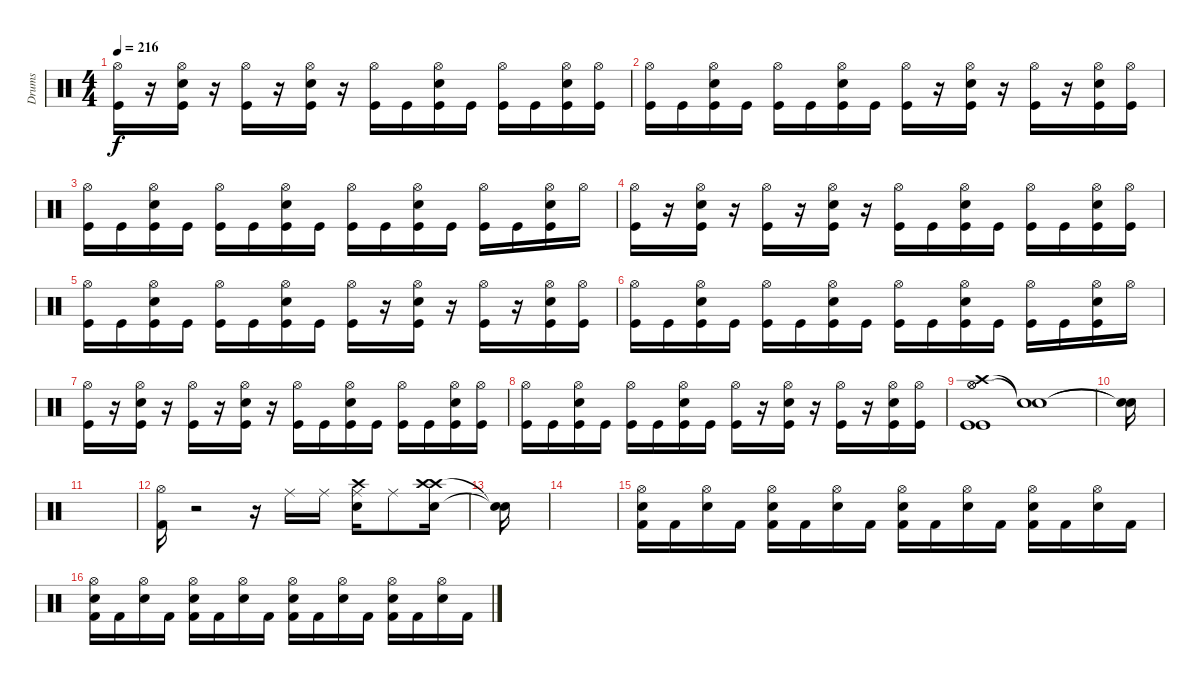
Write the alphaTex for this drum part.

\track ("Drums" "Drums") {instrument percussion}
\staff {score}
\articulation defaults
\ts (4 4)
\tempo 216
\clef neutral
\ks c
("Hi-Hat (open)" "Kick (hit)").16{dy f} r.16 ("Hi-Hat (open)" "Snare (hit) 2" "Kick (hit)").16 r.16 ("Hi-Hat (open)" "Kick (hit)").16 r.16 ("Hi-Hat (open)" "Snare (hit) 2" "Kick (hit)").16 r.16 ("Hi-Hat (open)" "Kick (hit)").16 "Kick (hit)".16 ("Hi-Hat (open)" "Snare (hit) 2" "Kick (hit)").16 "Kick (hit)".16 ("Hi-Hat (open)" "Kick (hit)").16 "Kick (hit)".16 ("Hi-Hat (open)" "Snare (hit) 2" "Kick (hit)").16 ("Hi-Hat (open)" "Kick (hit)").16 |
("Hi-Hat (open)" "Kick (hit)").16 "Kick (hit)".16 ("Hi-Hat (open)" "Snare (hit) 2" "Kick (hit)").16 "Kick (hit)".16 ("Hi-Hat (open)" "Kick (hit)").16 "Kick (hit)".16 ("Hi-Hat (open)" "Snare (hit) 2" "Kick (hit)").16 "Kick (hit)".16 ("Hi-Hat (open)" "Kick (hit)").16 r.16 ("Hi-Hat (open)" "Snare (hit) 2" "Kick (hit)").16 r.16 ("Hi-Hat (open)" "Kick (hit)").16 r.16 ("Hi-Hat (open)" "Snare (hit) 2" "Kick (hit)").16 ("Hi-Hat (open)" "Kick (hit)").16 |
("Hi-Hat (open)" "Kick (hit)").16 "Kick (hit)".16 ("Hi-Hat (open)" "Snare (hit) 2" "Kick (hit)").16 "Kick (hit)".16 ("Hi-Hat (open)" "Kick (hit)").16 "Kick (hit)".16 ("Hi-Hat (open)" "Snare (hit) 2" "Kick (hit)").16 "Kick (hit)".16 ("Hi-Hat (open)" "Kick (hit)").16 "Kick (hit)".16 ("Hi-Hat (open)" "Snare (hit) 2" "Kick (hit)").16 "Kick (hit)".16 ("Hi-Hat (open)" "Kick (hit)").16 "Kick (hit)".16 ("Hi-Hat (open)" "Snare (hit) 2" "Kick (hit)").16 "Hi-Hat (open)".16 |
("Hi-Hat (open)" "Kick (hit)").16 r.16 ("Hi-Hat (open)" "Snare (hit) 2" "Kick (hit)").16 r.16 ("Hi-Hat (open)" "Kick (hit)").16 r.16 ("Hi-Hat (open)" "Snare (hit) 2" "Kick (hit)").16 r.16 ("Hi-Hat (open)" "Kick (hit)").16 "Kick (hit)".16 ("Hi-Hat (open)" "Snare (hit) 2" "Kick (hit)").16 "Kick (hit)".16 ("Hi-Hat (open)" "Kick (hit)").16 "Kick (hit)".16 ("Hi-Hat (open)" "Snare (hit) 2" "Kick (hit)").16 ("Hi-Hat (open)" "Kick (hit)").16 |
("Hi-Hat (open)" "Kick (hit)").16 "Kick (hit)".16 ("Hi-Hat (open)" "Snare (hit) 2" "Kick (hit)").16 "Kick (hit)".16 ("Hi-Hat (open)" "Kick (hit)").16 "Kick (hit)".16 ("Hi-Hat (open)" "Snare (hit) 2" "Kick (hit)").16 "Kick (hit)".16 ("Hi-Hat (open)" "Kick (hit)").16 r.16 ("Hi-Hat (open)" "Snare (hit) 2" "Kick (hit)").16 r.16 ("Hi-Hat (open)" "Kick (hit)").16 r.16 ("Hi-Hat (open)" "Snare (hit) 2" "Kick (hit)").16 ("Hi-Hat (open)" "Kick (hit)").16 |
("Hi-Hat (open)" "Kick (hit)").16 "Kick (hit)".16 ("Hi-Hat (open)" "Snare (hit) 2" "Kick (hit)").16 "Kick (hit)".16 ("Hi-Hat (open)" "Kick (hit)").16 "Kick (hit)".16 ("Hi-Hat (open)" "Snare (hit) 2" "Kick (hit)").16 "Kick (hit)".16 ("Hi-Hat (open)" "Kick (hit)").16 "Kick (hit)".16 ("Hi-Hat (open)" "Snare (hit) 2" "Kick (hit)").16 "Kick (hit)".16 ("Hi-Hat (open)" "Kick (hit)").16 "Kick (hit)".16 ("Hi-Hat (open)" "Snare (hit) 2" "Kick (hit)").16 "Hi-Hat (open)".16 |
("Hi-Hat (open)" "Kick (hit)").16 r.16 ("Hi-Hat (open)" "Snare (hit) 2" "Kick (hit)").16 r.16 ("Hi-Hat (open)" "Kick (hit)").16 r.16 ("Hi-Hat (open)" "Snare (hit) 2" "Kick (hit)").16 r.16 ("Hi-Hat (open)" "Kick (hit)").16 "Kick (hit)".16 ("Hi-Hat (open)" "Snare (hit) 2" "Kick (hit)").16 "Kick (hit)".16 ("Hi-Hat (open)" "Kick (hit)").16 "Kick (hit)".16 ("Hi-Hat (open)" "Snare (hit) 2" "Kick (hit)").16 ("Hi-Hat (open)" "Kick (hit)").16 |
("Hi-Hat (open)" "Kick (hit)").16 "Kick (hit)".16 ("Hi-Hat (open)" "Snare (hit) 2" "Kick (hit)").16 "Kick (hit)".16 ("Hi-Hat (open)" "Kick (hit)").16 "Kick (hit)".16 ("Hi-Hat (open)" "Snare (hit) 2" "Kick (hit)").16 "Kick (hit)".16 ("Hi-Hat (open)" "Kick (hit)").16 r.16 ("Hi-Hat (open)" "Snare (hit) 2" "Kick (hit)").16 r.16 ("Hi-Hat (open)" "Kick (hit)").16 r.16 ("Hi-Hat (open)" "Snare (hit) 2" "Kick (hit)").16 ("Hi-Hat (open)" "Kick (hit)").16 |
("Crash high (hit)" "Hi-Hat (open)" "Hi-Hat (open)" "Kick (hit)" "Kick (hit)").1 ("Snare (hit)"{t} "Snare (hit)"{t}).1 |
("Snare (hit)"{t} "Snare (hit)"{t}).16 |
|
("Kick (hit) 2" "Hi-Hat (open)").16 r.2 r.16 "Ride (middle)".16 "Ride (middle)".16 ("Snare (hit)" "Ride (middle)" "Crash high (hit)").16 "Ride (middle)".8 ("Snare (hit)" "Crash high (hit)" "Crash high (hit)").16 |
("Snare (hit)"{t} "Snare (hit)"{t}).16 |
|
("Hi-Hat (open)" "Snare (hit) 2" "Kick (hit) 2").16 "Kick (hit) 2".16 ("Hi-Hat (open)" "Snare (hit) 2").16 "Kick (hit) 2".16 ("Hi-Hat (open)" "Snare (hit) 2" "Kick (hit) 2").16 "Kick (hit) 2".16 ("Hi-Hat (open)" "Snare (hit) 2").16 "Kick (hit) 2".16 ("Hi-Hat (open)" "Snare (hit) 2" "Kick (hit) 2").16 "Kick (hit) 2".16 ("Hi-Hat (open)" "Snare (hit) 2").16 "Kick (hit) 2".16 ("Hi-Hat (open)" "Snare (hit) 2" "Kick (hit) 2").16 "Kick (hit) 2".16 ("Hi-Hat (open)" "Snare (hit) 2").16 "Kick (hit) 2".16 |
("Hi-Hat (open)" "Snare (hit) 2" "Kick (hit) 2").16 "Kick (hit) 2".16 ("Hi-Hat (open)" "Snare (hit) 2").16 "Kick (hit) 2".16 ("Hi-Hat (open)" "Snare (hit) 2" "Kick (hit) 2").16 "Kick (hit) 2".16 ("Hi-Hat (open)" "Snare (hit) 2").16 "Kick (hit) 2".16 ("Hi-Hat (open)" "Snare (hit) 2" "Kick (hit) 2").16 "Kick (hit) 2".16 ("Hi-Hat (open)" "Snare (hit) 2").16 "Kick (hit) 2".16 ("Hi-Hat (open)" "Snare (hit) 2" "Kick (hit) 2").16 "Kick (hit) 2".16 ("Hi-Hat (open)" "Snare (hit) 2").16 "Kick (hit) 2".16
